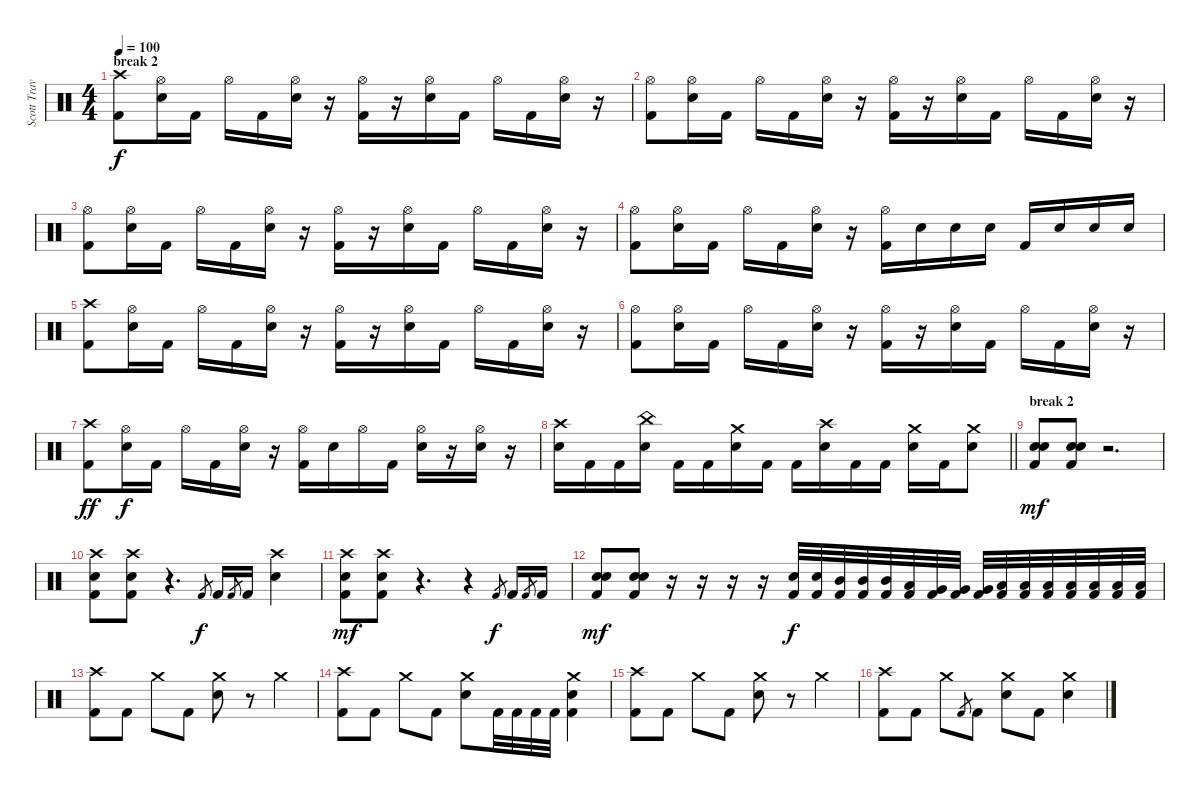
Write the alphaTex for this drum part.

\track ("Scott Travis" "Scott Trav") {instrument percussion}
\staff {score}
\articulation defaults
\ts (4 4)
\section ("" "break 2")
\tempo 100
\clef neutral
\ks c
("Crash high (hit)" "Kick (hit) 2").8{dy f} ("Hi-Hat (open)" "Snare (hit) 2").16 "Kick (hit) 2".16 "Hi-Hat (open)".16 "Kick (hit) 2".16 ("Hi-Hat (open)" "Snare (hit) 2").16 r.16 ("Hi-Hat (open)" "Kick (hit) 2").16 r.16 ("Hi-Hat (open)" "Snare (hit) 2").16 "Kick (hit) 2".16 "Hi-Hat (open)".16 "Kick (hit) 2".16 ("Hi-Hat (open)" "Snare (hit) 2").16 r.16 |
("Hi-Hat (open)" "Kick (hit) 2").8 ("Hi-Hat (open)" "Snare (hit) 2").16 "Kick (hit) 2".16 "Hi-Hat (open)".16 "Kick (hit) 2".16 ("Hi-Hat (open)" "Snare (hit) 2").16 r.16 ("Hi-Hat (open)" "Kick (hit) 2").16 r.16 ("Hi-Hat (open)" "Snare (hit) 2").16 "Kick (hit) 2".16 "Hi-Hat (open)".16 "Kick (hit) 2".16 ("Hi-Hat (open)" "Snare (hit) 2").16 r.16 |
("Hi-Hat (open)" "Kick (hit) 2").8 ("Hi-Hat (open)" "Snare (hit) 2").16 "Kick (hit) 2".16 "Hi-Hat (open)".16 "Kick (hit) 2".16 ("Hi-Hat (open)" "Snare (hit) 2").16 r.16 ("Hi-Hat (open)" "Kick (hit) 2").16 r.16 ("Hi-Hat (open)" "Snare (hit) 2").16 "Kick (hit) 2".16 "Hi-Hat (open)".16 "Kick (hit) 2".16 ("Hi-Hat (open)" "Snare (hit) 2").16 r.16 |
("Hi-Hat (open)" "Kick (hit) 2").8 ("Hi-Hat (open)" "Snare (hit) 2").16 "Kick (hit) 2".16 "Hi-Hat (open)".16 "Kick (hit) 2".16 ("Hi-Hat (open)" "Snare (hit) 2").16 r.16 ("Hi-Hat (open)" "Kick (hit) 2").16 "Snare (hit) 2".16 "Snare (hit) 2".16 "Snare (hit) 2".16 "Kick (hit) 2".16 "Snare (hit) 2".16 "Snare (hit) 2".16 "Snare (hit) 2".16 |
("Crash high (hit)" "Kick (hit) 2").8 ("Hi-Hat (open)" "Snare (hit) 2").16 "Kick (hit) 2".16 "Hi-Hat (open)".16 "Kick (hit) 2".16 ("Hi-Hat (open)" "Snare (hit) 2").16 r.16 ("Hi-Hat (open)" "Kick (hit) 2").16 r.16 ("Hi-Hat (open)" "Snare (hit) 2").16 "Kick (hit) 2".16 "Hi-Hat (open)".16 "Kick (hit) 2".16 ("Hi-Hat (open)" "Snare (hit) 2").16 r.16 |
("Hi-Hat (open)" "Kick (hit) 2").8 ("Hi-Hat (open)" "Snare (hit) 2").16 "Kick (hit) 2".16 "Hi-Hat (open)".16 "Kick (hit) 2".16 ("Hi-Hat (open)" "Snare (hit) 2").16 r.16 ("Hi-Hat (open)" "Kick (hit) 2").16 r.16 ("Hi-Hat (open)" "Snare (hit) 2").16 "Kick (hit) 2".16 "Hi-Hat (open)".16 "Kick (hit) 2".16 ("Hi-Hat (open)" "Snare (hit) 2").16 r.16 |
("Crash high (hit)" "Kick (hit) 2").8{dy ff} ("Hi-Hat (open)" "Snare (hit) 2").16{dy f} "Kick (hit) 2".16 "Hi-Hat (open)".16 "Kick (hit) 2".16 ("Hi-Hat (open)" "Snare (hit) 2").16 r.16 ("Hi-Hat (open)" "Kick (hit) 2").16 "Snare (hit) 2".16 "Hi-Hat (open)".16 "Kick (hit) 2".16 ("Hi-Hat (open)" "Snare (hit) 2").16 r.16 ("Hi-Hat (open)" "Snare (hit) 2").16 r.16 |
\barLineRight lightlight
("Crash high (hit)" "Electric Snare (hit)").16 "Kick (hit) 2".16 "Kick (hit) 2".16 ("China (hit)" "Electric Snare (hit)").16 "Kick (hit) 2".16 "Kick (hit) 2".16 ("Crash medium (hit)" "Electric Snare (hit)").16 "Kick (hit) 2".16 "Kick (hit) 2".16 ("Crash high (hit)" "Electric Snare (hit)").16 "Kick (hit) 2".16 "Kick (hit) 2".16 ("Crash medium (hit)" "Electric Snare (hit)").16 "Kick (hit) 2".16 ("Crash medium (hit)" "Electric Snare (hit)").8 |
\section ("" "break 2")
("Snare (hit) 2" "Electric Snare (hit)" "Kick (hit) 2").8{dy mf} ("Snare (hit) 2" "Electric Snare (hit)" "Kick (hit) 2").8 r.2{d} |
("Crash high (hit)" "Electric Snare (hit)" "Kick (hit) 2").8 ("Crash high (hit)" "Electric Snare (hit)" "Kick (hit) 2").8 r.4{d} "Kick (hit) 2".8{gr dy f} "Kick (hit) 2".16 "Kick (hit) 2".8{gr} "Kick (hit) 2".16 ("Crash high (hit)" "Electric Snare (hit)").4 |
("Crash high (hit)" "Electric Snare (hit)" "Kick (hit) 2").8{dy mf} ("Crash high (hit)" "Electric Snare (hit)" "Kick (hit) 2").8 r.4{d} r.4 "Kick (hit) 2".8{gr dy f} "Kick (hit) 2".16 "Kick (hit) 2".8{gr} "Kick (hit) 2".16 |
("Snare (hit) 2" "Electric Snare (hit)" "Kick (hit) 2").8{dy mf} ("Snare (hit) 2" "Electric Snare (hit)" "Kick (hit) 2").8 r.16 r.16 r.16 r.16 ("Electric Snare (hit)" "Kick (hit) 2").32{dy f} ("Electric Snare (hit)" "Kick (hit) 2").32 ("Mid Tom (hit)" "Kick (hit) 2").32 ("Mid Tom (hit)" "Kick (hit) 2").32 ("Mid Tom (hit)" "Kick (hit) 2").32 ("Low Tom (hit)" "Kick (hit) 2").32 ("Very Low Tom (hit)" "Kick (hit) 2").32 ("Very Low Tom (hit)" "Kick (hit) 2").32 ("Very Low Tom (hit)" "Kick (hit) 2").32 ("Low Tom (hit)" "Kick (hit) 2").32 ("Low Tom (hit)" "Kick (hit) 2").32 ("Low Tom (hit)" "Kick (hit) 2").32 ("Low Tom (hit)" "Kick (hit) 2").32 ("Low Floor Tom (hit)" "Kick (hit) 2").32 ("Low Floor Tom (hit)" "Kick (hit) 2").32 ("Low Floor Tom (hit)" "Kick (hit) 2").32 |
("Crash high (hit)" "Kick (hit) 2").8 "Kick (hit) 2".8 "Crash medium (hit)".8 "Kick (hit) 2".8 ("Crash medium (hit)" "Snare (hit) 2").8 r.8 "Crash medium (hit)".4 |
("Crash high (hit)" "Kick (hit) 2").8 "Kick (hit) 2".8 "Crash medium (hit)".8 "Kick (hit) 2".8 ("Crash medium (hit)" "Snare (hit) 2").8 "Kick (hit) 2".32 "Kick (hit) 2".32 "Kick (hit) 2".32 "Kick (hit) 2".32 ("Crash medium (hit)" "Snare (hit) 2" "Kick (hit) 2").4 |
("Crash high (hit)" "Kick (hit) 2").8 "Kick (hit) 2".8 "Crash medium (hit)".8 "Kick (hit) 2".8 ("Crash medium (hit)" "Snare (hit) 2").8 r.8 "Crash medium (hit)".4 |
("Crash high (hit)" "Kick (hit) 2").8 "Kick (hit) 2".8 "Crash medium (hit)".8 "Kick (hit) 2".8{gr} "Kick (hit) 2".8 ("Crash medium (hit)" "Snare (hit) 2").8 "Kick (hit) 2".8 ("Crash medium (hit)" "Snare (hit) 2").4
